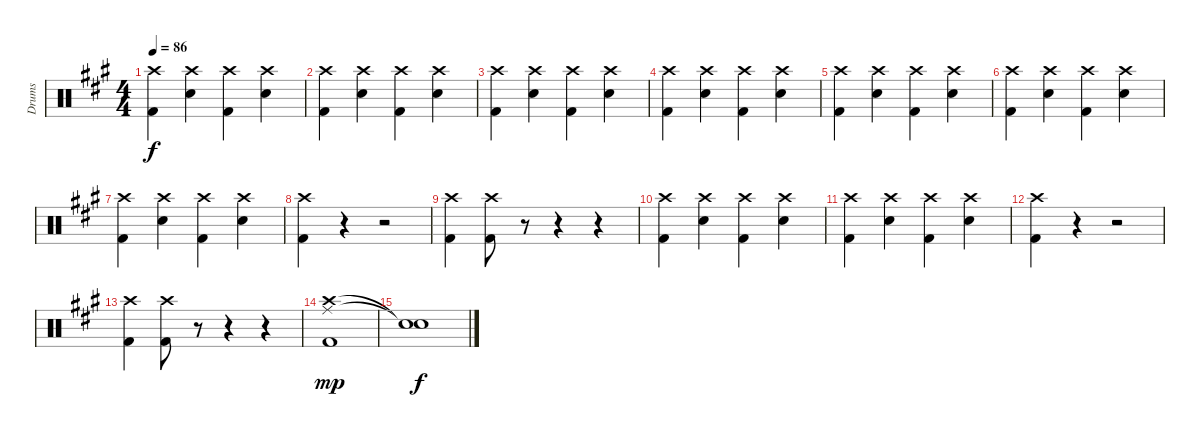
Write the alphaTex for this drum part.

\track ("Drums" "Drums") {instrument percussion}
\staff {score}
\articulation defaults
\ts (4 4)
\tempo 86
\clef neutral
\ks a
("Crash high (hit)" "Kick (hit) 2").4{dy f} ("Crash high (hit)" "Snare (hit) 2").4 ("Crash high (hit)" "Kick (hit) 2").4 ("Crash high (hit)" "Snare (hit) 2").4 |
("Crash high (hit)" "Kick (hit) 2").4 ("Crash high (hit)" "Snare (hit) 2").4 ("Crash high (hit)" "Kick (hit) 2").4 ("Crash high (hit)" "Snare (hit) 2").4 |
("Crash high (hit)" "Kick (hit) 2").4 ("Crash high (hit)" "Snare (hit) 2").4 ("Crash high (hit)" "Kick (hit) 2").4 ("Crash high (hit)" "Snare (hit) 2").4 |
("Crash high (hit)" "Kick (hit) 2").4 ("Crash high (hit)" "Snare (hit) 2").4 ("Crash high (hit)" "Kick (hit) 2").4 ("Crash high (hit)" "Snare (hit) 2").4 |
("Crash high (hit)" "Kick (hit) 2").4 ("Crash high (hit)" "Snare (hit) 2").4 ("Crash high (hit)" "Kick (hit) 2").4 ("Crash high (hit)" "Snare (hit) 2").4 |
("Crash high (hit)" "Kick (hit) 2").4 ("Crash high (hit)" "Snare (hit) 2").4 ("Crash high (hit)" "Kick (hit) 2").4 ("Crash high (hit)" "Snare (hit) 2").4 |
("Crash high (hit)" "Kick (hit) 2").4 ("Crash high (hit)" "Snare (hit) 2").4 ("Crash high (hit)" "Kick (hit) 2").4 ("Crash high (hit)" "Snare (hit) 2").4 |
("Crash high (hit)" "Kick (hit) 2").4 r.4 r.2 |
("Crash high (hit)" "Kick (hit) 2").4 ("Crash high (hit)" "Kick (hit) 2").8 r.8 r.4 r.4 |
("Crash high (hit)" "Kick (hit) 2").4 ("Crash high (hit)" "Snare (hit) 2").4 ("Crash high (hit)" "Kick (hit) 2").4 ("Crash high (hit)" "Snare (hit) 2").4 |
("Crash high (hit)" "Kick (hit) 2").4 ("Crash high (hit)" "Snare (hit) 2").4 ("Crash high (hit)" "Kick (hit) 2").4 ("Crash high (hit)" "Snare (hit) 2").4 |
("Crash high (hit)" "Kick (hit) 2").4 r.4 r.2 |
("Crash high (hit)" "Kick (hit) 2").4 ("Crash high (hit)" "Kick (hit) 2").8 r.8 r.4 r.4 |
("Ride (middle)" "Crash high (hit)" "Kick (hit) 2").1{dy mp} |
("Snare (hit)"{t} "Snare (hit)"{t}).1{dy f}
